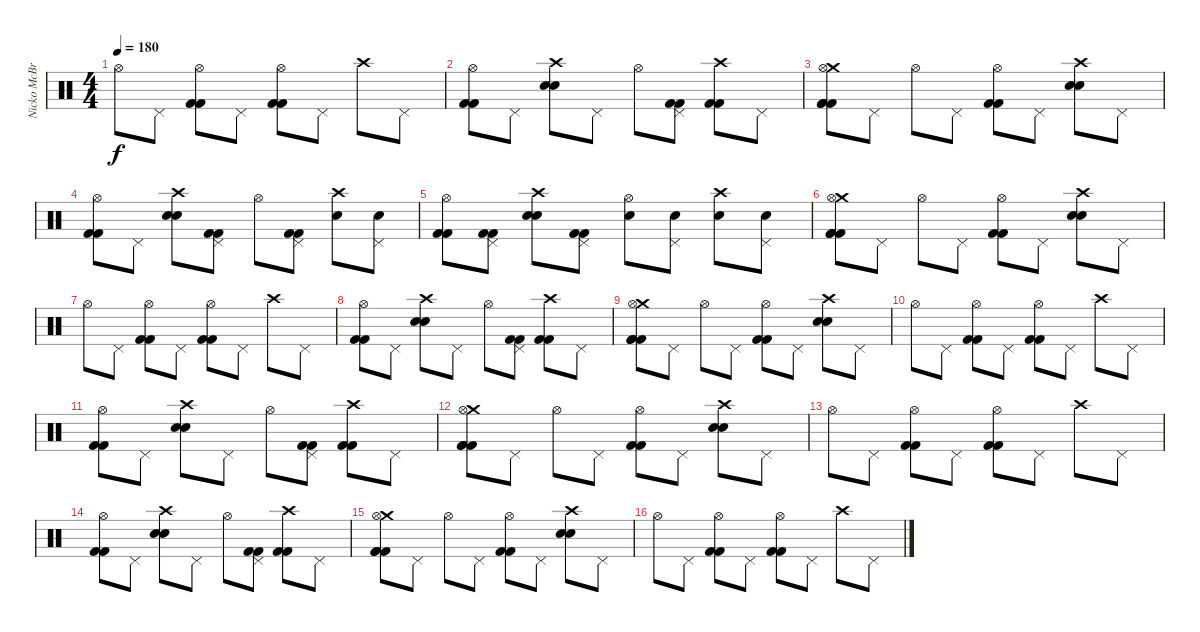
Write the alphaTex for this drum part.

\track ("Nicko McBrain" "Nicko McBr") {instrument percussion}
\staff {score}
\articulation defaults
\ts (4 4)
\tempo 180
\clef neutral
\ks c "Hi-Hat (open)".8{dy f} "Pedal Hi-Hat (hit)".8
("Hi-Hat (open)" "Kick (hit) 2" "Kick (hit) 2").8 "Pedal Hi-Hat (hit)".8 ("Hi-Hat (open)" "Kick (hit) 2" "Kick (hit) 2").8 "Pedal Hi-Hat (hit)".8 "Crash high (hit)".8 "Pedal Hi-Hat (hit)".8 |
("Hi-Hat (open)" "Kick (hit) 2" "Kick (hit) 2").8 "Pedal Hi-Hat (hit)".8 ("Crash high (hit)" "Snare (hit) 2" "Snare (hit) 2").8 "Pedal Hi-Hat (hit)".8 "Hi-Hat (open)".8 ("Pedal Hi-Hat (hit)" "Kick (hit) 2" "Kick (hit) 2").8 ("Crash high (hit)" "Kick (hit) 2" "Kick (hit) 2").8 "Pedal Hi-Hat (hit)".8 |
("Crash medium (hit)" "Hi-Hat (open)" "Kick (hit) 2" "Kick (hit) 2" "Kick (hit) 2").8 "Pedal Hi-Hat (hit)".8 "Hi-Hat (open)".8 "Pedal Hi-Hat (hit)".8 ("Hi-Hat (open)" "Kick (hit) 2" "Kick (hit) 2").8 "Pedal Hi-Hat (hit)".8 ("Crash high (hit)" "Snare (hit) 2" "Snare (hit) 2").8 "Pedal Hi-Hat (hit)".8 |
("Hi-Hat (open)" "Kick (hit) 2" "Kick (hit) 2").8 "Pedal Hi-Hat (hit)".8 ("Crash high (hit)" "Snare (hit) 2" "Snare (hit) 2").8 ("Pedal Hi-Hat (hit)" "Kick (hit) 2" "Kick (hit) 2").8 "Hi-Hat (open)".8 ("Pedal Hi-Hat (hit)" "Kick (hit) 2" "Kick (hit) 2").8 ("Crash high (hit)" "Snare (hit) 2").8 ("Pedal Hi-Hat (hit)" "Snare (hit) 2").8 |
("Hi-Hat (open)" "Kick (hit) 2" "Kick (hit) 2").8 ("Pedal Hi-Hat (hit)" "Kick (hit) 2" "Kick (hit) 2").8 ("Crash high (hit)" "Snare (hit) 2" "Snare (hit) 2").8 ("Pedal Hi-Hat (hit)" "Kick (hit) 2" "Kick (hit) 2").8 ("Hi-Hat (open)" "Snare (hit) 2").8 ("Pedal Hi-Hat (hit)" "Snare (hit) 2").8 ("Crash high (hit)" "Snare (hit) 2").8 ("Pedal Hi-Hat (hit)" "Snare (hit) 2").8 |
("Crash medium (hit)" "Hi-Hat (open)" "Kick (hit) 2" "Kick (hit) 2" "Kick (hit) 2").8 "Pedal Hi-Hat (hit)".8 "Hi-Hat (open)".8 "Pedal Hi-Hat (hit)".8 ("Hi-Hat (open)" "Kick (hit) 2" "Kick (hit) 2").8 "Pedal Hi-Hat (hit)".8 ("Crash high (hit)" "Snare (hit) 2" "Snare (hit) 2").8 "Pedal Hi-Hat (hit)".8 |
"Hi-Hat (open)".8 "Pedal Hi-Hat (hit)".8 ("Hi-Hat (open)" "Kick (hit) 2" "Kick (hit) 2").8 "Pedal Hi-Hat (hit)".8 ("Hi-Hat (open)" "Kick (hit) 2" "Kick (hit) 2").8 "Pedal Hi-Hat (hit)".8 "Crash high (hit)".8 "Pedal Hi-Hat (hit)".8 |
("Hi-Hat (open)" "Kick (hit) 2" "Kick (hit) 2").8 "Pedal Hi-Hat (hit)".8 ("Crash high (hit)" "Snare (hit) 2" "Snare (hit) 2").8 "Pedal Hi-Hat (hit)".8 "Hi-Hat (open)".8 ("Pedal Hi-Hat (hit)" "Kick (hit) 2" "Kick (hit) 2").8 ("Crash high (hit)" "Kick (hit) 2" "Kick (hit) 2").8 "Pedal Hi-Hat (hit)".8 |
("Crash medium (hit)" "Hi-Hat (open)" "Kick (hit) 2" "Kick (hit) 2" "Kick (hit) 2").8 "Pedal Hi-Hat (hit)".8 "Hi-Hat (open)".8 "Pedal Hi-Hat (hit)".8 ("Hi-Hat (open)" "Kick (hit) 2" "Kick (hit) 2").8 "Pedal Hi-Hat (hit)".8 ("Crash high (hit)" "Snare (hit) 2" "Snare (hit) 2").8 "Pedal Hi-Hat (hit)".8 |
"Hi-Hat (open)".8 "Pedal Hi-Hat (hit)".8 ("Hi-Hat (open)" "Kick (hit) 2" "Kick (hit) 2").8 "Pedal Hi-Hat (hit)".8 ("Hi-Hat (open)" "Kick (hit) 2" "Kick (hit) 2").8 "Pedal Hi-Hat (hit)".8 "Crash high (hit)".8 "Pedal Hi-Hat (hit)".8 |
("Hi-Hat (open)" "Kick (hit) 2" "Kick (hit) 2").8 "Pedal Hi-Hat (hit)".8 ("Crash high (hit)" "Snare (hit) 2" "Snare (hit) 2").8 "Pedal Hi-Hat (hit)".8 "Hi-Hat (open)".8 ("Pedal Hi-Hat (hit)" "Kick (hit) 2" "Kick (hit) 2").8 ("Crash high (hit)" "Kick (hit) 2" "Kick (hit) 2").8 "Pedal Hi-Hat (hit)".8 |
("Crash medium (hit)" "Hi-Hat (open)" "Kick (hit) 2" "Kick (hit) 2" "Kick (hit) 2").8 "Pedal Hi-Hat (hit)".8 "Hi-Hat (open)".8 "Pedal Hi-Hat (hit)".8 ("Hi-Hat (open)" "Kick (hit) 2" "Kick (hit) 2").8 "Pedal Hi-Hat (hit)".8 ("Crash high (hit)" "Snare (hit) 2" "Snare (hit) 2").8 "Pedal Hi-Hat (hit)".8 |
"Hi-Hat (open)".8 "Pedal Hi-Hat (hit)".8 ("Hi-Hat (open)" "Kick (hit) 2" "Kick (hit) 2").8 "Pedal Hi-Hat (hit)".8 ("Hi-Hat (open)" "Kick (hit) 2" "Kick (hit) 2").8 "Pedal Hi-Hat (hit)".8 "Crash high (hit)".8 "Pedal Hi-Hat (hit)".8 |
("Hi-Hat (open)" "Kick (hit) 2" "Kick (hit) 2").8 "Pedal Hi-Hat (hit)".8 ("Crash high (hit)" "Snare (hit) 2" "Snare (hit) 2").8 "Pedal Hi-Hat (hit)".8 "Hi-Hat (open)".8 ("Pedal Hi-Hat (hit)" "Kick (hit) 2" "Kick (hit) 2").8 ("Crash high (hit)" "Kick (hit) 2" "Kick (hit) 2").8 "Pedal Hi-Hat (hit)".8 |
("Crash medium (hit)" "Hi-Hat (open)" "Kick (hit) 2" "Kick (hit) 2" "Kick (hit) 2").8 "Pedal Hi-Hat (hit)".8 "Hi-Hat (open)".8 "Pedal Hi-Hat (hit)".8 ("Hi-Hat (open)" "Kick (hit) 2" "Kick (hit) 2").8 "Pedal Hi-Hat (hit)".8 ("Crash high (hit)" "Snare (hit) 2" "Snare (hit) 2").8 "Pedal Hi-Hat (hit)".8 |
"Hi-Hat (open)".8 "Pedal Hi-Hat (hit)".8 ("Hi-Hat (open)" "Kick (hit) 2" "Kick (hit) 2").8 "Pedal Hi-Hat (hit)".8 ("Hi-Hat (open)" "Kick (hit) 2" "Kick (hit) 2").8 "Pedal Hi-Hat (hit)".8 "Crash high (hit)".8 "Pedal Hi-Hat (hit)".8
